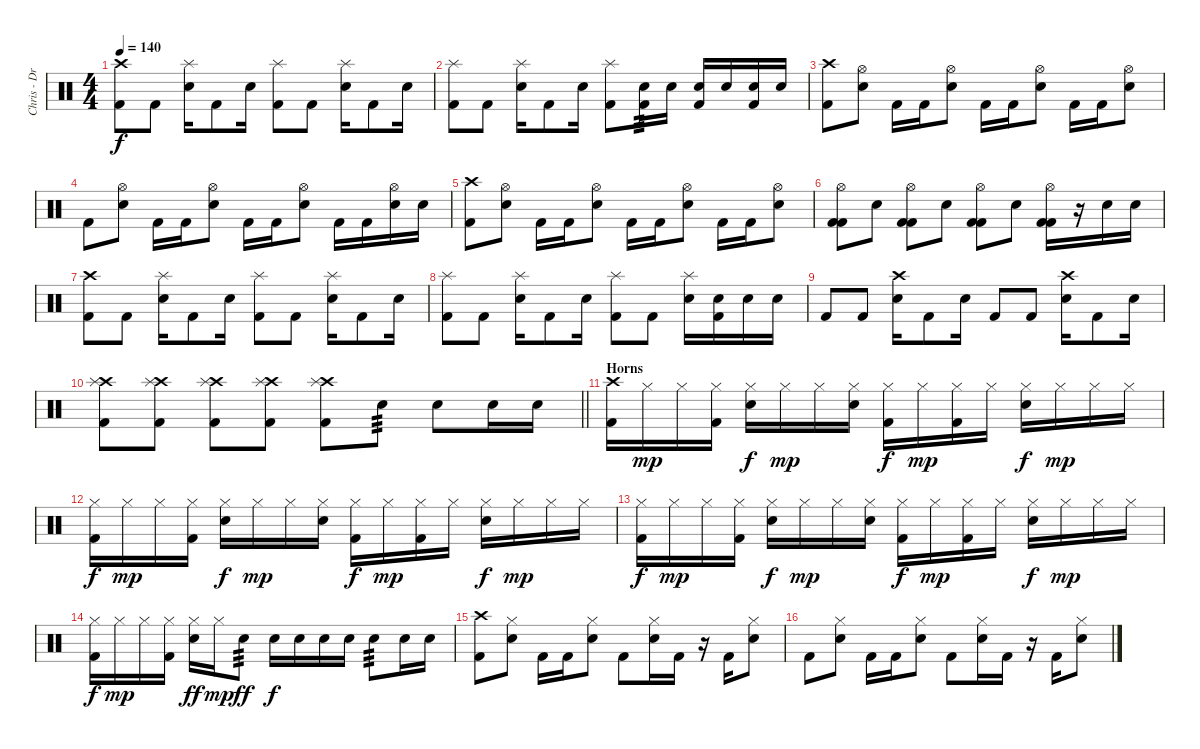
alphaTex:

\track ("Chris - Drums" "Chris - Dr") {instrument percussion}
\staff {score}
\articulation defaults
\ts (4 4)
\tempo 140
\clef neutral
\ks c
("Crash high (hit)" "Kick (hit) 2").8{dy f} "Kick (hit) 2".8 ("Splash (hit)" "Electric Snare (hit)").16 "Kick (hit) 2".8 "Electric Snare (hit)".16 ("Splash (hit)" "Kick (hit) 2").8 "Kick (hit) 2".8 ("Splash (hit)" "Electric Snare (hit)").16 "Kick (hit) 2".8 "Electric Snare (hit)".16 |
("Splash (hit)" "Kick (hit) 2").8 "Kick (hit) 2".8 ("Splash (hit)" "Electric Snare (hit)").16 "Kick (hit) 2".8 "Electric Snare (hit)".16 ("Splash (hit)" "Kick (hit) 2").8 ("Electric Snare (hit)" "Kick (hit) 2").16{tp 3} "Electric Snare (hit)".16 ("Electric Snare (hit)" "Kick (hit) 2").16 "Electric Snare (hit)".16 ("Electric Snare (hit)" "Kick (hit) 2").16 "Electric Snare (hit)".16 |
("Crash high (hit)" "Kick (hit) 2").8 ("Hi-Hat (open)" "Electric Snare (hit)").8 "Kick (hit) 2".16 "Kick (hit) 2".16 ("Hi-Hat (open)" "Electric Snare (hit)").8 "Kick (hit) 2".16 "Kick (hit) 2".16 ("Hi-Hat (open)" "Electric Snare (hit)").8 "Kick (hit) 2".16 "Kick (hit) 2".16 ("Hi-Hat (open)" "Electric Snare (hit)").8 |
"Kick (hit) 2".8 ("Hi-Hat (open)" "Electric Snare (hit)").8 "Kick (hit) 2".16 "Kick (hit) 2".16 ("Hi-Hat (open)" "Electric Snare (hit)").8 "Kick (hit) 2".16 "Kick (hit) 2".16 ("Hi-Hat (open)" "Electric Snare (hit)").8 "Kick (hit) 2".16 "Kick (hit) 2".16 ("Hi-Hat (open)" "Electric Snare (hit)").16 "Electric Snare (hit)".16 |
("Crash high (hit)" "Kick (hit) 2").8 ("Hi-Hat (open)" "Electric Snare (hit)").8 "Kick (hit) 2".16 "Kick (hit) 2".16 ("Hi-Hat (open)" "Electric Snare (hit)").8 "Kick (hit) 2".16 "Kick (hit) 2".16 ("Hi-Hat (open)" "Electric Snare (hit)").8 "Kick (hit) 2".16 "Kick (hit) 2".16 ("Hi-Hat (open)" "Electric Snare (hit)").8 |
("Hi-Hat (open)" "Kick (hit) 2" "Kick (hit) 2").8 "Electric Snare (hit)".8 ("Hi-Hat (open)" "Kick (hit) 2" "Kick (hit) 2").8 "Electric Snare (hit)".8 ("Hi-Hat (open)" "Kick (hit) 2" "Kick (hit) 2").8 "Electric Snare (hit)".8 ("Hi-Hat (open)" "Kick (hit) 2" "Kick (hit) 2").16 r.16 "Electric Snare (hit)".16 "Electric Snare (hit)".16 |
("Crash high (hit)" "Kick (hit) 2").8 "Kick (hit) 2".8 ("Splash (hit)" "Electric Snare (hit)").16 "Kick (hit) 2".8 "Electric Snare (hit)".16 ("Splash (hit)" "Kick (hit) 2").8 "Kick (hit) 2".8 ("Splash (hit)" "Electric Snare (hit)").16 "Kick (hit) 2".8 "Electric Snare (hit)".16 |
("Splash (hit)" "Kick (hit) 2").8 "Kick (hit) 2".8 ("Splash (hit)" "Electric Snare (hit)").16 "Kick (hit) 2".8 "Electric Snare (hit)".16 ("Splash (hit)" "Kick (hit) 2").8 "Kick (hit) 2".8 ("Splash (hit)" "Electric Snare (hit)").16 ("Electric Snare (hit)" "Kick (hit) 2").16 "Electric Snare (hit)".16 "Electric Snare (hit)".16 |
"Kick (hit) 2".8 "Kick (hit) 2".8 ("Crash high (hit)" "Electric Snare (hit)").16 "Kick (hit) 2".8 "Electric Snare (hit)".16 "Kick (hit) 2".8 "Kick (hit) 2".8 ("Crash high (hit)" "Electric Snare (hit)").16 "Kick (hit) 2".8 "Electric Snare (hit)".16 |
\barLineRight lightlight
("Crash high (hit)" "Splash (hit)" "Kick (hit) 2").8 ("Crash high (hit)" "Splash (hit)" "Kick (hit) 2").8 ("Crash high (hit)" "Splash (hit)" "Kick (hit) 2").8 ("Crash high (hit)" "Splash (hit)" "Kick (hit) 2").8 ("Crash high (hit)" "Splash (hit)" "Kick (hit) 2").8 "Electric Snare (hit)".8{tp 3} "Electric Snare (hit)".8 "Electric Snare (hit)".16 "Electric Snare (hit)".16 |
\section ("" "Horns")
("Crash high (hit)" "Kick (hit) 2").16 "Hi-Hat (closed)".16{dy mp} "Hi-Hat (closed)".16 ("Hi-Hat (closed)" "Kick (hit) 2").16 ("Hi-Hat (closed)" "Electric Snare (hit)").16{dy f} "Hi-Hat (closed)".16{dy mp} "Hi-Hat (closed)".16 ("Hi-Hat (closed)" "Electric Snare (hit)").16 ("Hi-Hat (closed)" "Kick (hit) 2").16{dy f} "Hi-Hat (closed)".16{dy mp} ("Hi-Hat (closed)" "Kick (hit) 2").16 "Hi-Hat (closed)".16 ("Hi-Hat (closed)" "Electric Snare (hit)").16{dy f} "Hi-Hat (closed)".16{dy mp} "Hi-Hat (closed)".16 "Hi-Hat (closed)".16 |
("Hi-Hat (closed)" "Kick (hit) 2").16{dy f} "Hi-Hat (closed)".16{dy mp} "Hi-Hat (closed)".16 ("Hi-Hat (closed)" "Kick (hit) 2").16 ("Hi-Hat (closed)" "Electric Snare (hit)").16{dy f} "Hi-Hat (closed)".16{dy mp} "Hi-Hat (closed)".16 ("Hi-Hat (closed)" "Electric Snare (hit)").16 ("Hi-Hat (closed)" "Kick (hit) 2").16{dy f} "Hi-Hat (closed)".16{dy mp} ("Hi-Hat (closed)" "Kick (hit) 2").16 "Hi-Hat (closed)".16 ("Hi-Hat (closed)" "Electric Snare (hit)").16{dy f} "Hi-Hat (closed)".16{dy mp} "Hi-Hat (closed)".16 "Hi-Hat (closed)".16 |
("Hi-Hat (closed)" "Kick (hit) 2").16{dy f} "Hi-Hat (closed)".16{dy mp} "Hi-Hat (closed)".16 ("Hi-Hat (closed)" "Kick (hit) 2").16 ("Hi-Hat (closed)" "Electric Snare (hit)").16{dy f} "Hi-Hat (closed)".16{dy mp} "Hi-Hat (closed)".16 ("Hi-Hat (closed)" "Electric Snare (hit)").16 ("Hi-Hat (closed)" "Kick (hit) 2").16{dy f} "Hi-Hat (closed)".16{dy mp} ("Hi-Hat (closed)" "Kick (hit) 2").16 "Hi-Hat (closed)".16 ("Hi-Hat (closed)" "Electric Snare (hit)").16{dy f} "Hi-Hat (closed)".16{dy mp} "Hi-Hat (closed)".16 "Hi-Hat (closed)".16 |
("Hi-Hat (closed)" "Kick (hit) 2").16{dy f} "Hi-Hat (closed)".16{dy mp} "Hi-Hat (closed)".16 ("Hi-Hat (closed)" "Kick (hit) 2").16 ("Hi-Hat (closed)" "Electric Snare (hit)").16{dy ff} "Hi-Hat (closed)".16{dy mp} "Electric Snare (hit)".8{tp 3 dy ff} "Electric Snare (hit)".16{dy f} "Electric Snare (hit)".16 "Electric Snare (hit)".16 "Electric Snare (hit)".16 "Electric Snare (hit)".8{tp 3} "Electric Snare (hit)".16 "Electric Snare (hit)".16 |
("Crash high (hit)" "Kick (hit) 2").8 ("Hi-Hat (closed)" "Electric Snare (hit)").8 "Kick (hit) 2".16 "Kick (hit) 2".16 ("Hi-Hat (closed)" "Electric Snare (hit)").8 "Kick (hit) 2".8 ("Hi-Hat (closed)" "Electric Snare (hit)").16 "Kick (hit) 2".16 r.16 "Kick (hit) 2".16 ("Hi-Hat (closed)" "Electric Snare (hit)").8 |
"Kick (hit) 2".8 ("Hi-Hat (closed)" "Electric Snare (hit)").8 "Kick (hit) 2".16 "Kick (hit) 2".16 ("Hi-Hat (closed)" "Electric Snare (hit)").8 "Kick (hit) 2".8 ("Hi-Hat (closed)" "Electric Snare (hit)").16 "Kick (hit) 2".16 r.16 "Kick (hit) 2".16 ("Hi-Hat (closed)" "Electric Snare (hit)").8
